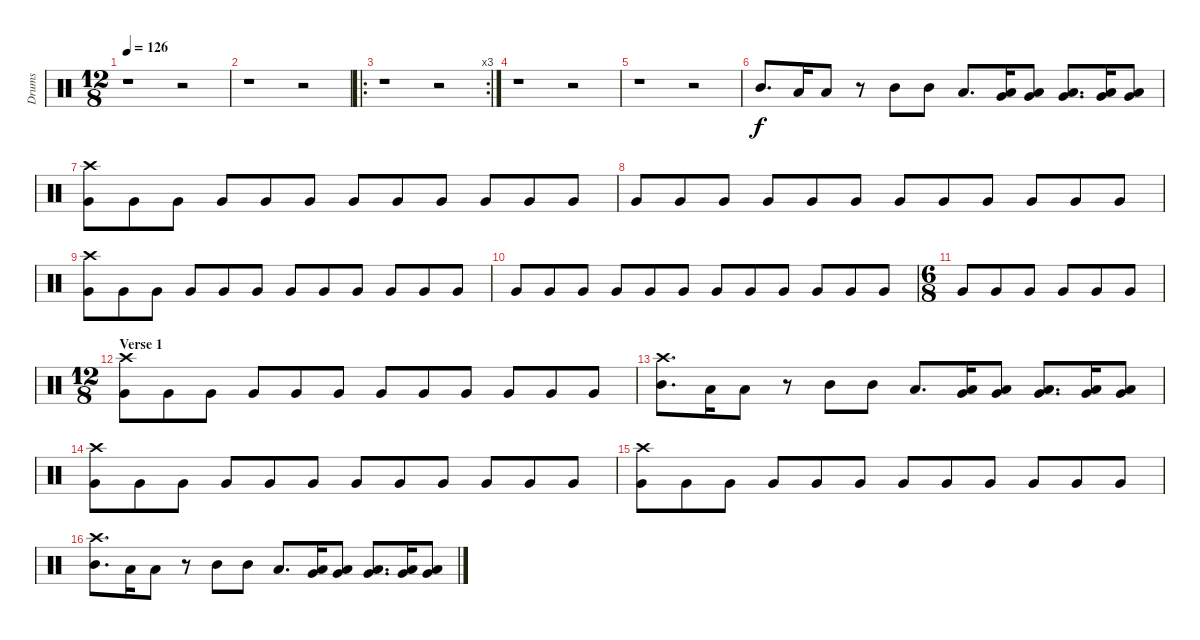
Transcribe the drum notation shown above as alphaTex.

\track ("Drums" "Drums") {instrument percussion}
\staff {score}
\articulation defaults
\ts (12 8)
\tempo 126
\clef neutral
\ks c
r.1{dy f} r.2 |
r.1 r.2 |
\ro
\rc 3
r.1 r.2 |
r.1 r.2 |
r.1 r.2 |
"Mid Tom (hit)".8{d} "Low Tom (hit)".16 "Low Tom (hit)".8 r.8 "Mid Tom (hit)".8 "Mid Tom (hit)".8 "Low Tom (hit)".8{d} ("Very Low Tom (hit)" "Low Tom (hit)").16 ("Very Low Tom (hit)" "Low Tom (hit)").8 ("Very Low Tom (hit)" "Low Tom (hit)").8{d} ("Very Low Tom (hit)" "Low Tom (hit)").16 ("Very Low Tom (hit)" "Low Tom (hit)").8 |
("Crash high (hit)" "Very Low Tom (hit)").8 "Very Low Tom (hit)".8 "Very Low Tom (hit)".8 "Very Low Tom (hit)".8 "Very Low Tom (hit)".8 "Very Low Tom (hit)".8 "Very Low Tom (hit)".8 "Very Low Tom (hit)".8 "Very Low Tom (hit)".8 "Very Low Tom (hit)".8 "Very Low Tom (hit)".8 "Very Low Tom (hit)".8 |
"Very Low Tom (hit)".8 "Very Low Tom (hit)".8 "Very Low Tom (hit)".8 "Very Low Tom (hit)".8 "Very Low Tom (hit)".8 "Very Low Tom (hit)".8 "Very Low Tom (hit)".8 "Very Low Tom (hit)".8 "Very Low Tom (hit)".8 "Very Low Tom (hit)".8 "Very Low Tom (hit)".8 "Very Low Tom (hit)".8 |
("Crash high (hit)" "Very Low Tom (hit)").8 "Very Low Tom (hit)".8 "Very Low Tom (hit)".8 "Very Low Tom (hit)".8 "Very Low Tom (hit)".8 "Very Low Tom (hit)".8 "Very Low Tom (hit)".8 "Very Low Tom (hit)".8 "Very Low Tom (hit)".8 "Very Low Tom (hit)".8 "Very Low Tom (hit)".8 "Very Low Tom (hit)".8 |
"Very Low Tom (hit)".8 "Very Low Tom (hit)".8 "Very Low Tom (hit)".8 "Very Low Tom (hit)".8 "Very Low Tom (hit)".8 "Very Low Tom (hit)".8 "Very Low Tom (hit)".8 "Very Low Tom (hit)".8 "Very Low Tom (hit)".8 "Very Low Tom (hit)".8 "Very Low Tom (hit)".8 "Very Low Tom (hit)".8 |
\ts (6 8)
"Very Low Tom (hit)".8 "Very Low Tom (hit)".8 "Very Low Tom (hit)".8 "Very Low Tom (hit)".8 "Very Low Tom (hit)".8 "Very Low Tom (hit)".8 |
\ts (12 8)
\section ("" "Verse 1")
("Crash high (hit)" "Very Low Tom (hit)").8 "Very Low Tom (hit)".8 "Very Low Tom (hit)".8 "Very Low Tom (hit)".8 "Very Low Tom (hit)".8 "Very Low Tom (hit)".8 "Very Low Tom (hit)".8 "Very Low Tom (hit)".8 "Very Low Tom (hit)".8 "Very Low Tom (hit)".8 "Very Low Tom (hit)".8 "Very Low Tom (hit)".8 |
("Crash high (hit)" "Mid Tom (hit)").8{d} "Low Tom (hit)".16 "Low Tom (hit)".8 r.8 "Mid Tom (hit)".8 "Mid Tom (hit)".8 "Low Tom (hit)".8{d} ("Very Low Tom (hit)" "Low Tom (hit)").16 ("Very Low Tom (hit)" "Low Tom (hit)").8 ("Very Low Tom (hit)" "Low Tom (hit)").8{d} ("Very Low Tom (hit)" "Low Tom (hit)").16 ("Very Low Tom (hit)" "Low Tom (hit)").8 |
("Crash high (hit)" "Very Low Tom (hit)").8 "Very Low Tom (hit)".8 "Very Low Tom (hit)".8 "Very Low Tom (hit)".8 "Very Low Tom (hit)".8 "Very Low Tom (hit)".8 "Very Low Tom (hit)".8 "Very Low Tom (hit)".8 "Very Low Tom (hit)".8 "Very Low Tom (hit)".8 "Very Low Tom (hit)".8 "Very Low Tom (hit)".8 |
("Crash high (hit)" "Very Low Tom (hit)").8 "Very Low Tom (hit)".8 "Very Low Tom (hit)".8 "Very Low Tom (hit)".8 "Very Low Tom (hit)".8 "Very Low Tom (hit)".8 "Very Low Tom (hit)".8 "Very Low Tom (hit)".8 "Very Low Tom (hit)".8 "Very Low Tom (hit)".8 "Very Low Tom (hit)".8 "Very Low Tom (hit)".8 |
("Crash high (hit)" "Mid Tom (hit)").8{d} "Low Tom (hit)".16 "Low Tom (hit)".8 r.8 "Mid Tom (hit)".8 "Mid Tom (hit)".8 "Low Tom (hit)".8{d} ("Very Low Tom (hit)" "Low Tom (hit)").16 ("Very Low Tom (hit)" "Low Tom (hit)").8 ("Very Low Tom (hit)" "Low Tom (hit)").8{d} ("Very Low Tom (hit)" "Low Tom (hit)").16 ("Very Low Tom (hit)" "Low Tom (hit)").8
